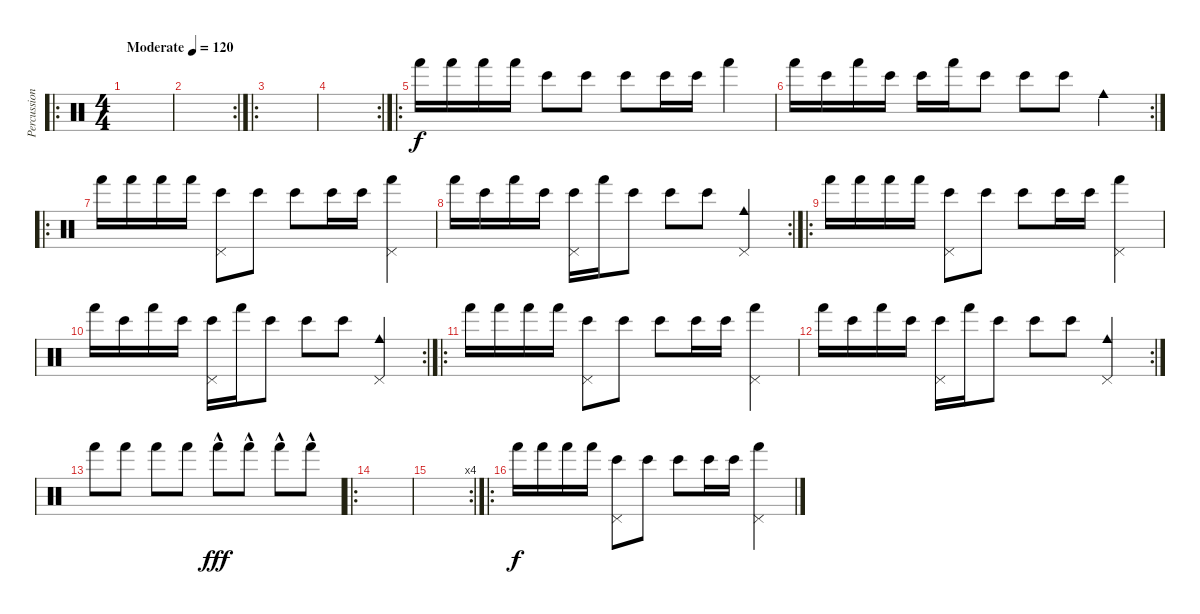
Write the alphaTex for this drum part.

\track ("Percussion" "Percussion") {instrument percussion}
\staff {score}
\articulation defaults
\ro
\ts (4 4)
\tempo (120 "Moderate")
\clef neutral
\ks c
|
\rc 2
|
\ro
|
\rc 2
|
\ro "Hand (hit)".16 "Hand (hit)".16 "Hand (hit)".16 "Hand (hit)".16 "Bongo High (hit)".8 "Bongo High (hit)".8 "Bongo High (hit)".8 "Bongo High (hit)".16 "Bongo High (hit)".16 "Hand (hit)".4
|
\rc 2 "Hand (hit)".16 "Bongo High (hit)".16 "Hand (hit)".16 "Bongo High (hit)".16 "Bongo High (hit)".16 "Hand (hit)".16 "Bongo High (hit)".8 "Bongo High (hit)".8 "Bongo High (hit)".8 "Cowbell medium (hit)".4
|
\ro "Hand (hit)".16 "Hand (hit)".16 "Hand (hit)".16 "Hand (hit)".16
("Pedal Hi-Hat (hit)" "Bongo High (hit)").8 "Bongo High (hit)".8 "Bongo High (hit)".8 "Bongo High (hit)".16 "Bongo High (hit)".16 ("Pedal Hi-Hat (hit)" "Hand (hit)").4 |
\rc 2 "Hand (hit)".16 "Bongo High (hit)".16 "Hand (hit)".16 "Bongo High (hit)".16
("Pedal Hi-Hat (hit)" "Bongo High (hit)").16 "Hand (hit)".16 "Bongo High (hit)".8 "Bongo High (hit)".8 "Bongo High (hit)".8 ("Pedal Hi-Hat (hit)" "Cowbell medium (hit)").4 |
\ro "Hand (hit)".16 "Hand (hit)".16 "Hand (hit)".16 "Hand (hit)".16
("Pedal Hi-Hat (hit)" "Bongo High (hit)").8 "Bongo High (hit)".8 "Bongo High (hit)".8 "Bongo High (hit)".16 "Bongo High (hit)".16 ("Pedal Hi-Hat (hit)" "Hand (hit)").4 |
\rc 2 "Hand (hit)".16 "Bongo High (hit)".16 "Hand (hit)".16 "Bongo High (hit)".16
("Pedal Hi-Hat (hit)" "Bongo High (hit)").16 "Hand (hit)".16 "Bongo High (hit)".8 "Bongo High (hit)".8 "Bongo High (hit)".8 ("Pedal Hi-Hat (hit)" "Cowbell medium (hit)").4 |
\ro "Hand (hit)".16 "Hand (hit)".16 "Hand (hit)".16 "Hand (hit)".16
("Pedal Hi-Hat (hit)" "Bongo High (hit)").8 "Bongo High (hit)".8 "Bongo High (hit)".8 "Bongo High (hit)".16 "Bongo High (hit)".16 ("Pedal Hi-Hat (hit)" "Hand (hit)").4 |
\rc 2 "Hand (hit)".16 "Bongo High (hit)".16 "Hand (hit)".16 "Bongo High (hit)".16
("Pedal Hi-Hat (hit)" "Bongo High (hit)").16 "Hand (hit)".16 "Bongo High (hit)".8 "Bongo High (hit)".8 "Bongo High (hit)".8 ("Pedal Hi-Hat (hit)" "Cowbell medium (hit)").4 |
"Hand (hit)".8 "Hand (hit)".8 "Hand (hit)".8 "Hand (hit)".8 "Hand (hit)"{hac}.8{dy fff} "Hand (hit)"{hac}.8 "Hand (hit)"{hac}.8 "Hand (hit)"{hac}.8 |
\ro
|
\rc 4
|
\ro "Hand (hit)".16{dy f} "Hand (hit)".16 "Hand (hit)".16 "Hand (hit)".16
("Pedal Hi-Hat (hit)" "Bongo High (hit)").8 "Bongo High (hit)".8 "Bongo High (hit)".8 "Bongo High (hit)".16 "Bongo High (hit)".16 ("Pedal Hi-Hat (hit)" "Hand (hit)").4
